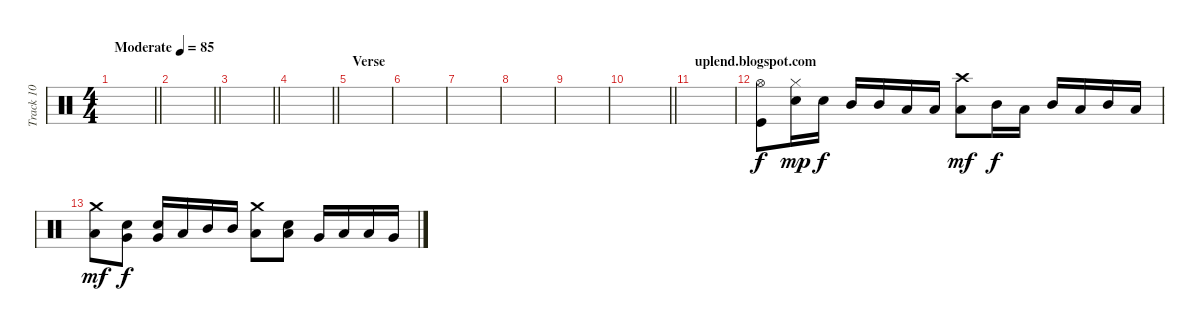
\track ("Track 10" "Track 10") {instrument percussion}
\staff {score}
\articulation defaults
\ts (4 4)
\tempo (85 "Moderate")
\clef neutral
\barLineRight lightlight
\ks c
|
\barLineRight lightlight
|
\barLineRight lightlight
|
\barLineRight lightlight
|
\section ("" "Verse")
|
|
|
|
|
\barLineRight lightlight
|
\section ("" "uplend.blogspot.com")
|
("Kick (hit)" "Hi-Hat (open)").8 ("Hi-Hat (closed)" "Electric Snare (hit)").16{dy mp} "Electric Snare (hit)".16{dy f} "Mid Tom (hit)".16 "Mid Tom (hit)".16 "Low Tom (hit)".16 "Low Tom (hit)".16 ("Low Floor Tom (hit)" "Crash high (hit)").8{dy mf} "Mid Tom (hit)".16{dy f} "Low Tom (hit)".16 "Mid Tom (hit)".16 "Low Floor Tom (hit)".16 "Mid Tom (hit)".16 "Low Tom (hit)".16 |
("Crash medium (hit)" "Low Floor Tom (hit)").8{dy mf} ("Very Low Tom (hit)" "Electric Snare (hit)").8{dy f} ("Electric Snare (hit)" "Very Low Tom (hit)").16 "Low Tom (hit)".16 "Mid Tom (hit)".16 "Mid Tom (hit)".16 ("Low Tom (hit)" "Crash medium (hit)").8 ("Low Tom (hit)" "Electric Snare (hit)").8 "Very Low Tom (hit)".16 "Low Tom (hit)".16 "Low Floor Tom (hit)".16 "Very Low Tom (hit)".16
